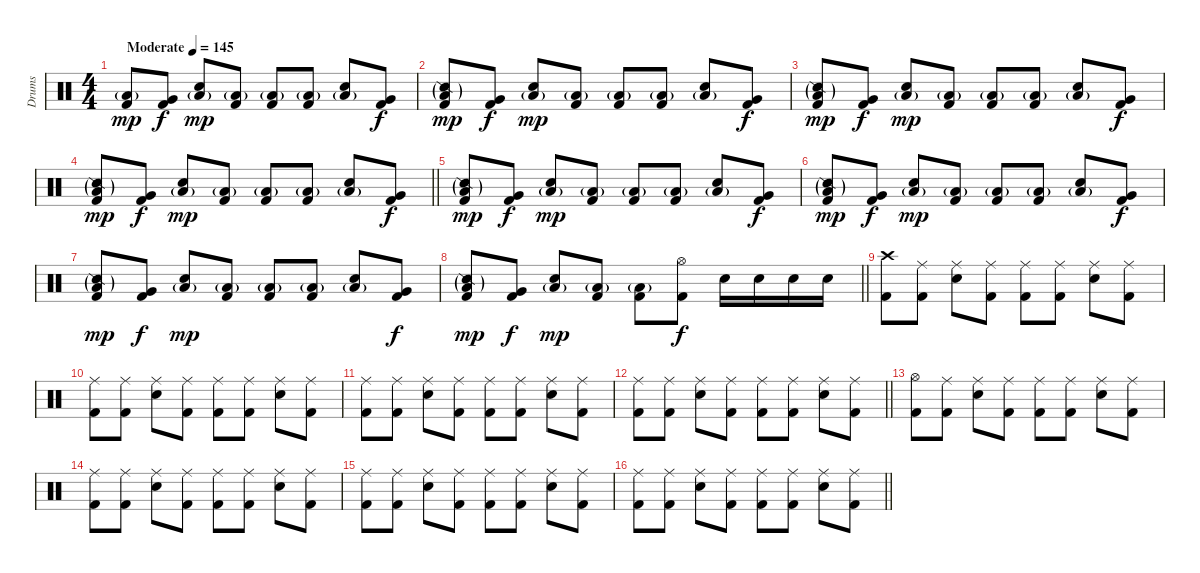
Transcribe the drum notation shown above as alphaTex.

\track ("Drums" "Drums") {instrument percussion}
\staff {score}
\articulation defaults
\ts (4 4)
\tempo (145 "Moderate")
\clef neutral
\ks c
("Kick (hit) 2" "Low Floor Tom (hit)"{g}).8{dy mp} ("Kick (hit) 2" "Very Low Tom (hit)").8{dy f} ("Snare (hit) 2" "Low Floor Tom (hit)"{g}).8{dy mp} ("Kick (hit) 2" "Low Floor Tom (hit)"{g}).8 ("Kick (hit) 2" "Low Floor Tom (hit)"{g}).8 ("Kick (hit) 2" "Low Floor Tom (hit)"{g}).8 ("Snare (hit) 2" "Low Floor Tom (hit)"{g}).8 ("Kick (hit) 2" "Very Low Tom (hit)").8{dy f} |
("Kick (hit) 2" "Low Floor Tom (hit)"{g} "Snare (side stick) 2"{g}).8{dy mp} ("Kick (hit) 2" "Very Low Tom (hit)").8{dy f} ("Snare (hit) 2" "Low Floor Tom (hit)"{g}).8{dy mp} ("Kick (hit) 2" "Low Floor Tom (hit)"{g}).8 ("Kick (hit) 2" "Low Floor Tom (hit)"{g}).8 ("Kick (hit) 2" "Low Floor Tom (hit)"{g}).8 ("Snare (hit) 2" "Low Floor Tom (hit)"{g}).8 ("Kick (hit) 2" "Very Low Tom (hit)").8{dy f} |
("Kick (hit) 2" "Low Floor Tom (hit)"{g} "Snare (side stick) 2"{g}).8{dy mp} ("Kick (hit) 2" "Very Low Tom (hit)").8{dy f} ("Snare (hit) 2" "Low Floor Tom (hit)"{g}).8{dy mp} ("Kick (hit) 2" "Low Floor Tom (hit)"{g}).8 ("Kick (hit) 2" "Low Floor Tom (hit)"{g}).8 ("Kick (hit) 2" "Low Floor Tom (hit)"{g}).8 ("Snare (hit) 2" "Low Floor Tom (hit)"{g}).8 ("Kick (hit) 2" "Very Low Tom (hit)").8{dy f} |
\barLineRight lightlight
("Kick (hit) 2" "Low Floor Tom (hit)"{g} "Snare (side stick) 2"{g}).8{dy mp} ("Kick (hit) 2" "Very Low Tom (hit)").8{dy f} ("Snare (hit) 2" "Low Floor Tom (hit)"{g}).8{dy mp} ("Kick (hit) 2" "Low Floor Tom (hit)"{g}).8 ("Kick (hit) 2" "Low Floor Tom (hit)"{g}).8 ("Kick (hit) 2" "Low Floor Tom (hit)"{g}).8 ("Snare (hit) 2" "Low Floor Tom (hit)"{g}).8 ("Kick (hit) 2" "Very Low Tom (hit)").8{dy f} |
("Kick (hit) 2" "Low Floor Tom (hit)"{g} "Snare (side stick) 2"{g}).8{dy mp} ("Kick (hit) 2" "Very Low Tom (hit)").8{dy f} ("Snare (hit) 2" "Low Floor Tom (hit)"{g}).8{dy mp} ("Kick (hit) 2" "Low Floor Tom (hit)"{g}).8 ("Kick (hit) 2" "Low Floor Tom (hit)"{g}).8 ("Kick (hit) 2" "Low Floor Tom (hit)"{g}).8 ("Snare (hit) 2" "Low Floor Tom (hit)"{g}).8 ("Kick (hit) 2" "Very Low Tom (hit)").8{dy f} |
("Kick (hit) 2" "Low Floor Tom (hit)"{g} "Snare (side stick) 2"{g}).8{dy mp} ("Kick (hit) 2" "Very Low Tom (hit)").8{dy f} ("Snare (hit) 2" "Low Floor Tom (hit)"{g}).8{dy mp} ("Kick (hit) 2" "Low Floor Tom (hit)"{g}).8 ("Kick (hit) 2" "Low Floor Tom (hit)"{g}).8 ("Kick (hit) 2" "Low Floor Tom (hit)"{g}).8 ("Snare (hit) 2" "Low Floor Tom (hit)"{g}).8 ("Kick (hit) 2" "Very Low Tom (hit)").8{dy f} |
("Kick (hit) 2" "Low Floor Tom (hit)"{g} "Snare (side stick) 2"{g}).8{dy mp} ("Kick (hit) 2" "Very Low Tom (hit)").8{dy f} ("Snare (hit) 2" "Low Floor Tom (hit)"{g}).8{dy mp} ("Kick (hit) 2" "Low Floor Tom (hit)"{g}).8 ("Kick (hit) 2" "Low Floor Tom (hit)"{g}).8 ("Kick (hit) 2" "Low Floor Tom (hit)"{g}).8 ("Snare (hit) 2" "Low Floor Tom (hit)"{g}).8 ("Kick (hit) 2" "Very Low Tom (hit)").8{dy f} |
\barLineRight lightlight
("Kick (hit) 2" "Low Floor Tom (hit)"{g} "Snare (side stick) 2"{g}).8{dy mp} ("Kick (hit) 2" "Very Low Tom (hit)").8{dy f} ("Snare (hit) 2" "Low Floor Tom (hit)"{g}).8{dy mp} ("Kick (hit) 2" "Low Floor Tom (hit)"{g}).8 ("Kick (hit) 2" "Low Floor Tom (hit)"{g}).8 ("Kick (hit) 2" "Hi-Hat (open)").8{dy f} "Snare (hit) 2".16 "Snare (hit) 2".16 "Snare (hit) 2".16 "Snare (hit) 2".16 |
("Kick (hit) 2" "Crash high (hit)").8 ("Kick (hit) 2" "Ride (middle)").8 ("Snare (hit) 2" "Ride (middle)").8 ("Kick (hit) 2" "Ride (middle)").8 ("Kick (hit) 2" "Ride (middle)").8 ("Kick (hit) 2" "Ride (middle)").8 ("Snare (hit) 2" "Ride (middle)").8 ("Kick (hit) 2" "Ride (middle)").8 |
("Kick (hit) 2" "Ride (middle)").8 ("Kick (hit) 2" "Ride (middle)").8 ("Snare (hit) 2" "Ride (middle)").8 ("Kick (hit) 2" "Ride (middle)").8 ("Kick (hit) 2" "Ride (middle)").8 ("Kick (hit) 2" "Ride (middle)").8 ("Snare (hit) 2" "Ride (middle)").8 ("Kick (hit) 2" "Ride (middle)").8 |
("Kick (hit) 2" "Ride (middle)").8 ("Kick (hit) 2" "Ride (middle)").8 ("Snare (hit) 2" "Ride (middle)").8 ("Kick (hit) 2" "Ride (middle)").8 ("Kick (hit) 2" "Ride (middle)").8 ("Kick (hit) 2" "Ride (middle)").8 ("Snare (hit) 2" "Ride (middle)").8 ("Kick (hit) 2" "Ride (middle)").8 |
\barLineRight lightlight
("Kick (hit) 2" "Ride (middle)").8 ("Kick (hit) 2" "Ride (middle)").8 ("Snare (hit) 2" "Ride (middle)").8 ("Kick (hit) 2" "Ride (middle)").8 ("Kick (hit) 2" "Ride (middle)").8 ("Kick (hit) 2" "Ride (middle)").8 ("Snare (hit) 2" "Ride (middle)").8 ("Kick (hit) 2" "Ride (middle)").8 |
("Kick (hit) 2" "Hi-Hat (open)").8 ("Kick (hit) 2" "Ride (middle)").8 ("Snare (hit) 2" "Ride (middle)").8 ("Kick (hit) 2" "Ride (middle)").8 ("Kick (hit) 2" "Ride (middle)").8 ("Kick (hit) 2" "Ride (middle)").8 ("Snare (hit) 2" "Ride (middle)").8 ("Kick (hit) 2" "Ride (middle)").8 |
("Kick (hit) 2" "Ride (middle)").8 ("Kick (hit) 2" "Ride (middle)").8 ("Snare (hit) 2" "Ride (middle)").8 ("Kick (hit) 2" "Ride (middle)").8 ("Kick (hit) 2" "Ride (middle)").8 ("Kick (hit) 2" "Ride (middle)").8 ("Snare (hit) 2" "Ride (middle)").8 ("Kick (hit) 2" "Ride (middle)").8 |
("Kick (hit) 2" "Ride (middle)").8 ("Kick (hit) 2" "Ride (middle)").8 ("Snare (hit) 2" "Ride (middle)").8 ("Kick (hit) 2" "Ride (middle)").8 ("Kick (hit) 2" "Ride (middle)").8 ("Kick (hit) 2" "Ride (middle)").8 ("Snare (hit) 2" "Ride (middle)").8 ("Kick (hit) 2" "Ride (middle)").8 |
\barLineRight lightlight
("Kick (hit) 2" "Ride (middle)").8 ("Kick (hit) 2" "Ride (middle)").8 ("Snare (hit) 2" "Ride (middle)").8 ("Kick (hit) 2" "Ride (middle)").8 ("Kick (hit) 2" "Ride (middle)").8 ("Kick (hit) 2" "Ride (middle)").8 ("Snare (hit) 2" "Ride (middle)").8 ("Kick (hit) 2" "Ride (middle)").8
